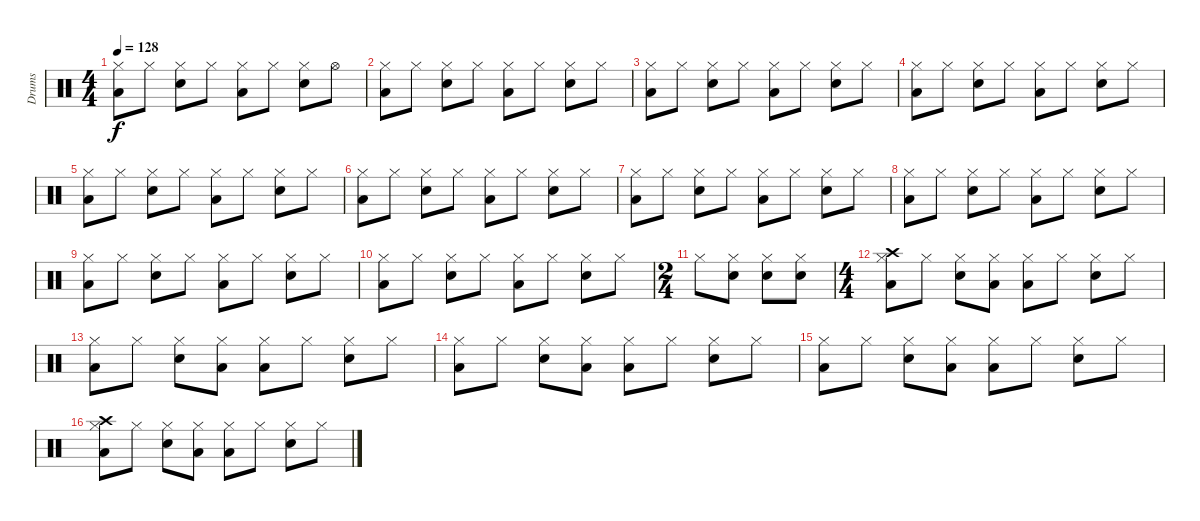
\track ("Drums" "Drums") {instrument percussion}
\staff {score}
\articulation defaults
\ts (4 4)
\tempo 128
\clef neutral
\ks c
("Hi-Hat (closed)" "Low Tom (hit)").8{dy f} "Hi-Hat (closed)".8 ("Hi-Hat (closed)" "Snare (hit) 2").8 "Hi-Hat (closed)".8 ("Hi-Hat (closed)" "Low Tom (hit)").8 "Hi-Hat (closed)".8 ("Hi-Hat (closed)" "Snare (hit) 2").8 "Hi-Hat (open)".8 |
("Hi-Hat (closed)" "Low Tom (hit)").8 "Hi-Hat (closed)".8 ("Hi-Hat (closed)" "Snare (hit) 2").8 "Hi-Hat (closed)".8 ("Hi-Hat (closed)" "Low Tom (hit)").8 "Hi-Hat (closed)".8 ("Hi-Hat (closed)" "Snare (hit) 2").8 "Hi-Hat (closed)".8 |
("Hi-Hat (closed)" "Low Tom (hit)").8 "Hi-Hat (closed)".8 ("Hi-Hat (closed)" "Snare (hit) 2").8 "Hi-Hat (closed)".8 ("Hi-Hat (closed)" "Low Tom (hit)").8 "Hi-Hat (closed)".8 ("Hi-Hat (closed)" "Snare (hit) 2").8 "Hi-Hat (closed)".8 |
("Hi-Hat (closed)" "Low Tom (hit)").8 "Hi-Hat (closed)".8 ("Hi-Hat (closed)" "Snare (hit) 2").8 "Hi-Hat (closed)".8 ("Hi-Hat (closed)" "Low Tom (hit)").8 "Hi-Hat (closed)".8 ("Hi-Hat (closed)" "Snare (hit) 2").8 "Hi-Hat (closed)".8 |
("Hi-Hat (closed)" "Low Tom (hit)").8 "Hi-Hat (closed)".8 ("Hi-Hat (closed)" "Snare (hit) 2").8 "Hi-Hat (closed)".8 ("Hi-Hat (closed)" "Low Tom (hit)").8 "Hi-Hat (closed)".8 ("Hi-Hat (closed)" "Snare (hit) 2").8 "Hi-Hat (closed)".8 |
("Hi-Hat (closed)" "Low Tom (hit)").8 "Hi-Hat (closed)".8 ("Hi-Hat (closed)" "Snare (hit) 2").8 "Hi-Hat (closed)".8 ("Hi-Hat (closed)" "Low Tom (hit)").8 "Hi-Hat (closed)".8 ("Hi-Hat (closed)" "Snare (hit) 2").8 "Hi-Hat (closed)".8 |
("Hi-Hat (closed)" "Low Tom (hit)").8 "Hi-Hat (closed)".8 ("Hi-Hat (closed)" "Snare (hit) 2").8 "Hi-Hat (closed)".8 ("Hi-Hat (closed)" "Low Tom (hit)").8 "Hi-Hat (closed)".8 ("Hi-Hat (closed)" "Snare (hit) 2").8 "Hi-Hat (closed)".8 |
("Hi-Hat (closed)" "Low Tom (hit)").8 "Hi-Hat (closed)".8 ("Hi-Hat (closed)" "Snare (hit) 2").8 "Hi-Hat (closed)".8 ("Hi-Hat (closed)" "Low Tom (hit)").8 "Hi-Hat (closed)".8 ("Hi-Hat (closed)" "Snare (hit) 2").8 "Hi-Hat (closed)".8 |
("Hi-Hat (closed)" "Low Tom (hit)").8 "Hi-Hat (closed)".8 ("Hi-Hat (closed)" "Snare (hit) 2").8 "Hi-Hat (closed)".8 ("Hi-Hat (closed)" "Low Tom (hit)").8 "Hi-Hat (closed)".8 ("Hi-Hat (closed)" "Snare (hit) 2").8 "Hi-Hat (closed)".8 |
("Hi-Hat (closed)" "Low Tom (hit)").8 "Hi-Hat (closed)".8 ("Hi-Hat (closed)" "Snare (hit) 2").8 "Hi-Hat (closed)".8 ("Hi-Hat (closed)" "Low Tom (hit)").8 "Hi-Hat (closed)".8 ("Hi-Hat (closed)" "Snare (hit) 2").8 "Hi-Hat (closed)".8 |
\ts (2 4)
"Hi-Hat (closed)".8 ("Hi-Hat (closed)" "Snare (hit) 2").8 ("Hi-Hat (closed)" "Snare (hit) 2").8 ("Hi-Hat (closed)" "Snare (hit) 2").8 |
\ts (4 4)
("Hi-Hat (closed)" "Low Tom (hit)" "Crash high (hit)").8 "Hi-Hat (closed)".8 ("Hi-Hat (closed)" "Snare (hit) 2").8 ("Hi-Hat (closed)" "Low Tom (hit)").8 ("Hi-Hat (closed)" "Low Tom (hit)").8 "Hi-Hat (closed)".8 ("Hi-Hat (closed)" "Snare (hit) 2").8 "Hi-Hat (closed)".8 |
("Hi-Hat (closed)" "Low Tom (hit)").8 "Hi-Hat (closed)".8 ("Hi-Hat (closed)" "Snare (hit) 2").8 ("Hi-Hat (closed)" "Low Tom (hit)").8 ("Hi-Hat (closed)" "Low Tom (hit)").8 "Hi-Hat (closed)".8 ("Hi-Hat (closed)" "Snare (hit) 2").8 "Hi-Hat (closed)".8 |
("Hi-Hat (closed)" "Low Tom (hit)").8 "Hi-Hat (closed)".8 ("Hi-Hat (closed)" "Snare (hit) 2").8 ("Hi-Hat (closed)" "Low Tom (hit)").8 ("Hi-Hat (closed)" "Low Tom (hit)").8 "Hi-Hat (closed)".8 ("Hi-Hat (closed)" "Snare (hit) 2").8 "Hi-Hat (closed)".8 |
("Hi-Hat (closed)" "Low Tom (hit)").8 "Hi-Hat (closed)".8 ("Hi-Hat (closed)" "Snare (hit) 2").8 ("Hi-Hat (closed)" "Low Tom (hit)").8 ("Hi-Hat (closed)" "Low Tom (hit)").8 "Hi-Hat (closed)".8 ("Hi-Hat (closed)" "Snare (hit) 2").8 "Hi-Hat (closed)".8 |
("Hi-Hat (closed)" "Low Tom (hit)" "Crash high (hit)").8 "Hi-Hat (closed)".8 ("Hi-Hat (closed)" "Snare (hit) 2").8 ("Hi-Hat (closed)" "Low Tom (hit)").8 ("Hi-Hat (closed)" "Low Tom (hit)").8 "Hi-Hat (closed)".8 ("Hi-Hat (closed)" "Snare (hit) 2").8 "Hi-Hat (closed)".8
